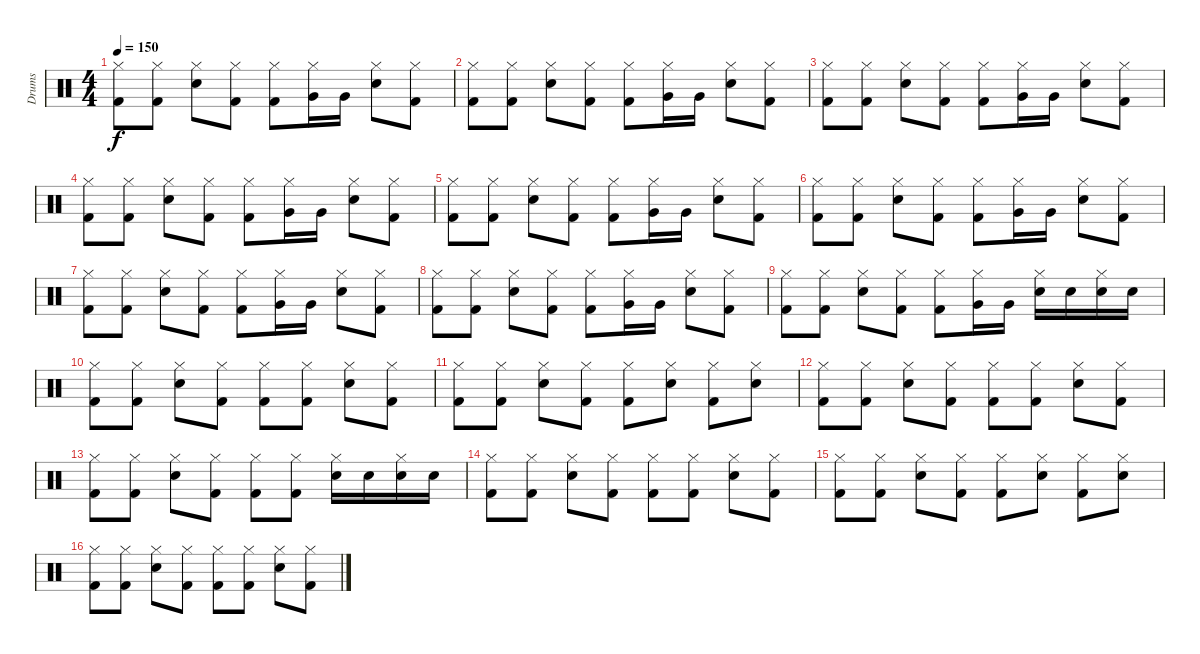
\track ("Drums" "Drums") {instrument percussion}
\staff {score}
\articulation defaults
\ts (4 4)
\tempo 150
\clef neutral
\ks c
("Hi-Hat (closed)" "Kick (hit) 2").8{dy f} ("Hi-Hat (closed)" "Kick (hit) 2").8 ("Hi-Hat (closed)" "Snare (hit) 2").8 ("Hi-Hat (closed)" "Kick (hit) 2").8 ("Hi-Hat (closed)" "Kick (hit) 2").8 ("Hi-Hat (closed)" "Very Low Tom (hit)").16 "Very Low Tom (hit)".16 ("Hi-Hat (closed)" "Snare (hit) 2").8 ("Hi-Hat (closed)" "Kick (hit) 2").8 |
("Hi-Hat (closed)" "Kick (hit) 2").8 ("Hi-Hat (closed)" "Kick (hit) 2").8 ("Hi-Hat (closed)" "Snare (hit) 2").8 ("Hi-Hat (closed)" "Kick (hit) 2").8 ("Hi-Hat (closed)" "Kick (hit) 2").8 ("Hi-Hat (closed)" "Very Low Tom (hit)").16 "Very Low Tom (hit)".16 ("Hi-Hat (closed)" "Snare (hit) 2").8 ("Hi-Hat (closed)" "Kick (hit) 2").8 |
("Hi-Hat (closed)" "Kick (hit) 2").8 ("Hi-Hat (closed)" "Kick (hit) 2").8 ("Hi-Hat (closed)" "Snare (hit) 2").8 ("Hi-Hat (closed)" "Kick (hit) 2").8 ("Hi-Hat (closed)" "Kick (hit) 2").8 ("Hi-Hat (closed)" "Very Low Tom (hit)").16 "Very Low Tom (hit)".16 ("Hi-Hat (closed)" "Snare (hit) 2").8 ("Hi-Hat (closed)" "Kick (hit) 2").8 |
("Hi-Hat (closed)" "Kick (hit) 2").8 ("Hi-Hat (closed)" "Kick (hit) 2").8 ("Hi-Hat (closed)" "Snare (hit) 2").8 ("Hi-Hat (closed)" "Kick (hit) 2").8 ("Hi-Hat (closed)" "Kick (hit) 2").8 ("Hi-Hat (closed)" "Very Low Tom (hit)").16 "Very Low Tom (hit)".16 ("Hi-Hat (closed)" "Snare (hit) 2").8 ("Hi-Hat (closed)" "Kick (hit) 2").8 |
("Hi-Hat (closed)" "Kick (hit) 2").8 ("Hi-Hat (closed)" "Kick (hit) 2").8 ("Hi-Hat (closed)" "Snare (hit) 2").8 ("Hi-Hat (closed)" "Kick (hit) 2").8 ("Hi-Hat (closed)" "Kick (hit) 2").8 ("Hi-Hat (closed)" "Very Low Tom (hit)").16 "Very Low Tom (hit)".16 ("Hi-Hat (closed)" "Snare (hit) 2").8 ("Hi-Hat (closed)" "Kick (hit) 2").8 |
("Hi-Hat (closed)" "Kick (hit) 2").8 ("Hi-Hat (closed)" "Kick (hit) 2").8 ("Hi-Hat (closed)" "Snare (hit) 2").8 ("Hi-Hat (closed)" "Kick (hit) 2").8 ("Hi-Hat (closed)" "Kick (hit) 2").8 ("Hi-Hat (closed)" "Very Low Tom (hit)").16 "Very Low Tom (hit)".16 ("Hi-Hat (closed)" "Snare (hit) 2").8 ("Hi-Hat (closed)" "Kick (hit) 2").8 |
("Hi-Hat (closed)" "Kick (hit) 2").8 ("Hi-Hat (closed)" "Kick (hit) 2").8 ("Hi-Hat (closed)" "Snare (hit) 2").8 ("Hi-Hat (closed)" "Kick (hit) 2").8 ("Hi-Hat (closed)" "Kick (hit) 2").8 ("Hi-Hat (closed)" "Very Low Tom (hit)").16 "Very Low Tom (hit)".16 ("Hi-Hat (closed)" "Snare (hit) 2").8 ("Hi-Hat (closed)" "Kick (hit) 2").8 |
("Hi-Hat (closed)" "Kick (hit) 2").8 ("Hi-Hat (closed)" "Kick (hit) 2").8 ("Hi-Hat (closed)" "Snare (hit) 2").8 ("Hi-Hat (closed)" "Kick (hit) 2").8 ("Hi-Hat (closed)" "Kick (hit) 2").8 ("Hi-Hat (closed)" "Very Low Tom (hit)").16 "Very Low Tom (hit)".16 ("Hi-Hat (closed)" "Snare (hit) 2").8 ("Hi-Hat (closed)" "Kick (hit) 2").8 |
("Hi-Hat (closed)" "Kick (hit) 2").8 ("Hi-Hat (closed)" "Kick (hit) 2").8 ("Hi-Hat (closed)" "Snare (hit) 2").8 ("Hi-Hat (closed)" "Kick (hit) 2").8 ("Hi-Hat (closed)" "Kick (hit) 2").8 ("Hi-Hat (closed)" "Very Low Tom (hit)").16 "Very Low Tom (hit)".16 ("Snare (hit) 2" "Hi-Hat (closed)").16 "Snare (hit) 2".16 ("Snare (hit) 2" "Hi-Hat (closed)").16 "Snare (hit) 2".16 |
("Hi-Hat (closed)" "Kick (hit) 2").8 ("Hi-Hat (closed)" "Kick (hit) 2").8 ("Hi-Hat (closed)" "Snare (hit) 2").8 ("Hi-Hat (closed)" "Kick (hit) 2").8 ("Hi-Hat (closed)" "Kick (hit) 2").8 ("Kick (hit) 2" "Hi-Hat (closed)").8 ("Hi-Hat (closed)" "Snare (hit) 2").8 ("Hi-Hat (closed)" "Kick (hit) 2").8 |
("Kick (hit) 2" "Hi-Hat (closed)").8 ("Kick (hit) 2" "Hi-Hat (closed)").8 ("Snare (hit) 2" "Hi-Hat (closed)").8 ("Kick (hit) 2" "Hi-Hat (closed)").8 ("Kick (hit) 2" "Hi-Hat (closed)").8 ("Snare (hit) 2" "Hi-Hat (closed)").8 ("Kick (hit) 2" "Hi-Hat (closed)").8 ("Snare (hit) 2" "Hi-Hat (closed)").8 |
("Hi-Hat (closed)" "Kick (hit) 2").8 ("Hi-Hat (closed)" "Kick (hit) 2").8 ("Hi-Hat (closed)" "Snare (hit) 2").8 ("Hi-Hat (closed)" "Kick (hit) 2").8 ("Hi-Hat (closed)" "Kick (hit) 2").8 ("Hi-Hat (closed)" "Kick (hit) 2").8 ("Hi-Hat (closed)" "Snare (hit) 2").8 ("Hi-Hat (closed)" "Kick (hit) 2").8 |
("Hi-Hat (closed)" "Kick (hit) 2").8 ("Hi-Hat (closed)" "Kick (hit) 2").8 ("Hi-Hat (closed)" "Snare (hit) 2").8 ("Hi-Hat (closed)" "Kick (hit) 2").8 ("Hi-Hat (closed)" "Kick (hit) 2").8 ("Hi-Hat (closed)" "Kick (hit) 2").8 ("Hi-Hat (closed)" "Snare (hit) 2").16 "Snare (hit) 2".16 ("Hi-Hat (closed)" "Snare (hit) 2").16 "Snare (hit) 2".16 |
("Hi-Hat (closed)" "Kick (hit) 2").8 ("Hi-Hat (closed)" "Kick (hit) 2").8 ("Hi-Hat (closed)" "Snare (hit) 2").8 ("Hi-Hat (closed)" "Kick (hit) 2").8 ("Hi-Hat (closed)" "Kick (hit) 2").8 ("Hi-Hat (closed)" "Kick (hit) 2").8 ("Hi-Hat (closed)" "Snare (hit) 2").8 ("Hi-Hat (closed)" "Kick (hit) 2").8 |
("Hi-Hat (closed)" "Kick (hit) 2").8 ("Hi-Hat (closed)" "Kick (hit) 2").8 ("Hi-Hat (closed)" "Snare (hit) 2").8 ("Hi-Hat (closed)" "Kick (hit) 2").8 ("Hi-Hat (closed)" "Kick (hit) 2").8 ("Hi-Hat (closed)" "Snare (hit) 2").8 ("Hi-Hat (closed)" "Kick (hit) 2").8 ("Hi-Hat (closed)" "Snare (hit) 2").8 |
("Kick (hit) 2" "Hi-Hat (closed)").8 ("Kick (hit) 2" "Hi-Hat (closed)").8 ("Snare (hit) 2" "Hi-Hat (closed)").8 ("Kick (hit) 2" "Hi-Hat (closed)").8 ("Kick (hit) 2" "Hi-Hat (closed)").8 ("Kick (hit) 2" "Hi-Hat (closed)").8 ("Snare (hit) 2" "Hi-Hat (closed)").8 ("Kick (hit) 2" "Hi-Hat (closed)").8
